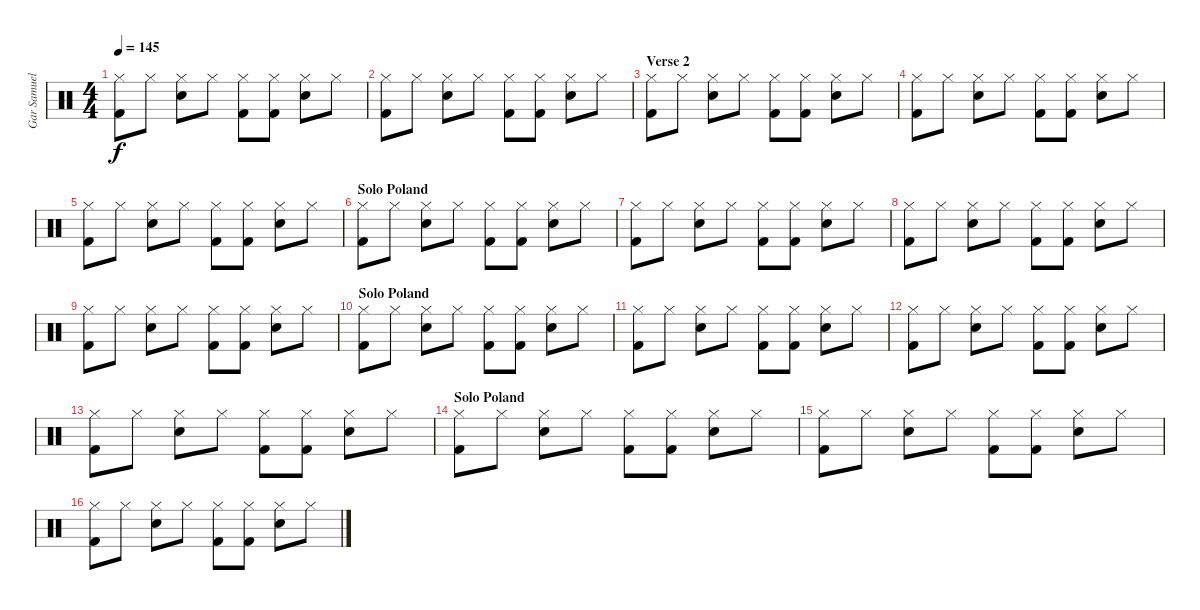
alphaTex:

\track ("Gar Samuelson (Drums)" "Gar Samuel") {instrument percussion}
\staff {score}
\articulation defaults
\ts (4 4)
\tempo 145
\clef neutral
\ks c
("Hi-Hat (closed)" "Kick (hit) 2").8{dy f} "Hi-Hat (closed)".8 ("Hi-Hat (closed)" "Electric Snare (hit)").8 "Hi-Hat (closed)".8 ("Hi-Hat (closed)" "Kick (hit) 2").8 ("Hi-Hat (closed)" "Kick (hit) 2").8 ("Hi-Hat (closed)" "Electric Snare (hit)").8 "Hi-Hat (closed)".8 |
("Hi-Hat (closed)" "Kick (hit) 2").8 "Hi-Hat (closed)".8 ("Hi-Hat (closed)" "Electric Snare (hit)").8 "Hi-Hat (closed)".8 ("Hi-Hat (closed)" "Kick (hit) 2").8 ("Hi-Hat (closed)" "Kick (hit) 2").8 ("Hi-Hat (closed)" "Electric Snare (hit)").8 "Hi-Hat (closed)".8 |
\section ("" "Verse 2")
("Hi-Hat (closed)" "Kick (hit) 2").8 "Hi-Hat (closed)".8 ("Hi-Hat (closed)" "Electric Snare (hit)").8 "Hi-Hat (closed)".8 ("Hi-Hat (closed)" "Kick (hit) 2").8 ("Hi-Hat (closed)" "Kick (hit) 2").8 ("Hi-Hat (closed)" "Electric Snare (hit)").8 "Hi-Hat (closed)".8 |
("Hi-Hat (closed)" "Kick (hit) 2").8 "Hi-Hat (closed)".8 ("Hi-Hat (closed)" "Electric Snare (hit)").8 "Hi-Hat (closed)".8 ("Hi-Hat (closed)" "Kick (hit) 2").8 ("Hi-Hat (closed)" "Kick (hit) 2").8 ("Hi-Hat (closed)" "Electric Snare (hit)").8 "Hi-Hat (closed)".8 |
("Hi-Hat (closed)" "Kick (hit) 2").8 "Hi-Hat (closed)".8 ("Hi-Hat (closed)" "Electric Snare (hit)").8 "Hi-Hat (closed)".8 ("Hi-Hat (closed)" "Kick (hit) 2").8 ("Hi-Hat (closed)" "Kick (hit) 2").8 ("Hi-Hat (closed)" "Electric Snare (hit)").8 "Hi-Hat (closed)".8 |
\section ("" "Solo Poland")
("Hi-Hat (closed)" "Kick (hit) 2").8 "Hi-Hat (closed)".8 ("Hi-Hat (closed)" "Electric Snare (hit)").8 "Hi-Hat (closed)".8 ("Hi-Hat (closed)" "Kick (hit) 2").8 ("Hi-Hat (closed)" "Kick (hit) 2").8 ("Hi-Hat (closed)" "Electric Snare (hit)").8 "Hi-Hat (closed)".8 |
("Hi-Hat (closed)" "Kick (hit) 2").8 "Hi-Hat (closed)".8 ("Hi-Hat (closed)" "Electric Snare (hit)").8 "Hi-Hat (closed)".8 ("Hi-Hat (closed)" "Kick (hit) 2").8 ("Hi-Hat (closed)" "Kick (hit) 2").8 ("Hi-Hat (closed)" "Electric Snare (hit)").8 "Hi-Hat (closed)".8 |
("Hi-Hat (closed)" "Kick (hit) 2").8 "Hi-Hat (closed)".8 ("Hi-Hat (closed)" "Electric Snare (hit)").8 "Hi-Hat (closed)".8 ("Hi-Hat (closed)" "Kick (hit) 2").8 ("Hi-Hat (closed)" "Kick (hit) 2").8 ("Hi-Hat (closed)" "Electric Snare (hit)").8 "Hi-Hat (closed)".8 |
("Hi-Hat (closed)" "Kick (hit) 2").8 "Hi-Hat (closed)".8 ("Hi-Hat (closed)" "Electric Snare (hit)").8 "Hi-Hat (closed)".8 ("Hi-Hat (closed)" "Kick (hit) 2").8 ("Hi-Hat (closed)" "Kick (hit) 2").8 ("Hi-Hat (closed)" "Electric Snare (hit)").8 "Hi-Hat (closed)".8 |
\section ("" "Solo Poland")
("Hi-Hat (closed)" "Kick (hit) 2").8 "Hi-Hat (closed)".8 ("Hi-Hat (closed)" "Electric Snare (hit)").8 "Hi-Hat (closed)".8 ("Hi-Hat (closed)" "Kick (hit) 2").8 ("Hi-Hat (closed)" "Kick (hit) 2").8 ("Hi-Hat (closed)" "Electric Snare (hit)").8 "Hi-Hat (closed)".8 |
("Hi-Hat (closed)" "Kick (hit) 2").8 "Hi-Hat (closed)".8 ("Hi-Hat (closed)" "Electric Snare (hit)").8 "Hi-Hat (closed)".8 ("Hi-Hat (closed)" "Kick (hit) 2").8 ("Hi-Hat (closed)" "Kick (hit) 2").8 ("Hi-Hat (closed)" "Electric Snare (hit)").8 "Hi-Hat (closed)".8 |
("Hi-Hat (closed)" "Kick (hit) 2").8 "Hi-Hat (closed)".8 ("Hi-Hat (closed)" "Electric Snare (hit)").8 "Hi-Hat (closed)".8 ("Hi-Hat (closed)" "Kick (hit) 2").8 ("Hi-Hat (closed)" "Kick (hit) 2").8 ("Hi-Hat (closed)" "Electric Snare (hit)").8 "Hi-Hat (closed)".8 |
("Hi-Hat (closed)" "Kick (hit) 2").8 "Hi-Hat (closed)".8 ("Hi-Hat (closed)" "Electric Snare (hit)").8 "Hi-Hat (closed)".8 ("Hi-Hat (closed)" "Kick (hit) 2").8 ("Hi-Hat (closed)" "Kick (hit) 2").8 ("Hi-Hat (closed)" "Electric Snare (hit)").8 "Hi-Hat (closed)".8 |
\section ("" "Solo Poland")
("Hi-Hat (closed)" "Kick (hit) 2").8 "Hi-Hat (closed)".8 ("Hi-Hat (closed)" "Electric Snare (hit)").8 "Hi-Hat (closed)".8 ("Hi-Hat (closed)" "Kick (hit) 2").8 ("Hi-Hat (closed)" "Kick (hit) 2").8 ("Hi-Hat (closed)" "Electric Snare (hit)").8 "Hi-Hat (closed)".8 |
("Hi-Hat (closed)" "Kick (hit) 2").8 "Hi-Hat (closed)".8 ("Hi-Hat (closed)" "Electric Snare (hit)").8 "Hi-Hat (closed)".8 ("Hi-Hat (closed)" "Kick (hit) 2").8 ("Hi-Hat (closed)" "Kick (hit) 2").8 ("Hi-Hat (closed)" "Electric Snare (hit)").8 "Hi-Hat (closed)".8 |
("Hi-Hat (closed)" "Kick (hit) 2").8 "Hi-Hat (closed)".8 ("Hi-Hat (closed)" "Electric Snare (hit)").8 "Hi-Hat (closed)".8 ("Hi-Hat (closed)" "Kick (hit) 2").8 ("Hi-Hat (closed)" "Kick (hit) 2").8 ("Hi-Hat (closed)" "Electric Snare (hit)").8 "Hi-Hat (closed)".8
